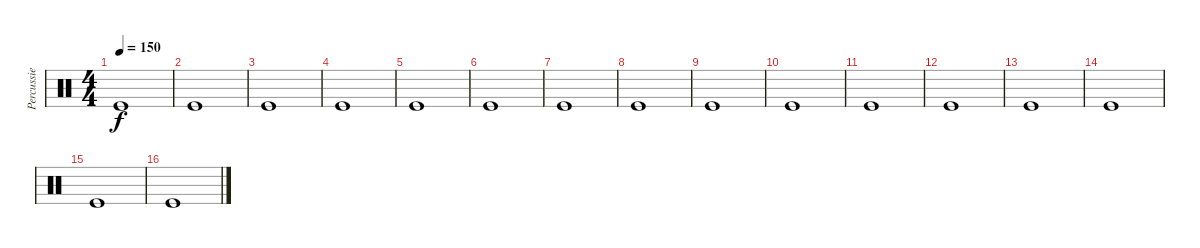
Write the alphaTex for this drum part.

\track ("Percussie" "Percussie") {instrument percussion}
\staff {score}
\articulation defaults
\ts (4 4)
\tempo 150
\clef neutral
\ks c "Kick (hit)".1{dy f}
|
"Kick (hit)".1 |
"Kick (hit)".1 |
"Kick (hit)".1 |
"Kick (hit)".1 |
"Kick (hit)".1 |
"Kick (hit)".1 |
"Kick (hit)".1 |
"Kick (hit)".1 |
"Kick (hit)".1 |
"Kick (hit)".1 |
"Kick (hit)".1 |
"Kick (hit)".1 |
"Kick (hit)".1 |
"Kick (hit)".1 |
"Kick (hit)".1
